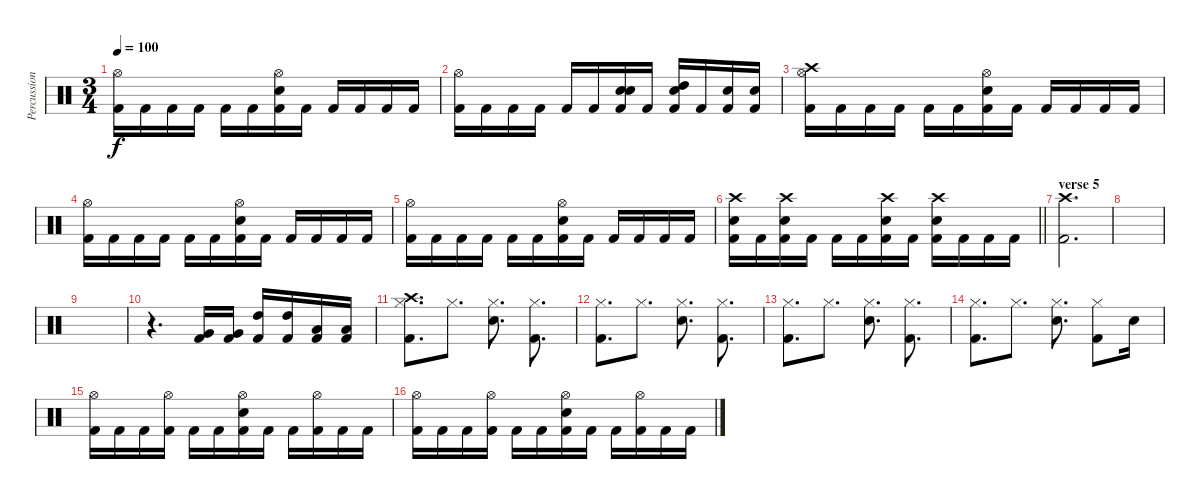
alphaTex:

\track ("Percussions" "Percussion") {instrument percussion}
\staff {score}
\articulation defaults
\ts (3 4)
\tempo 100
\clef neutral
\ks c
("Hi-Hat (open)" "Kick (hit) 2").16{dy f} "Kick (hit) 2".16 "Kick (hit) 2".16 "Kick (hit) 2".16 "Kick (hit) 2".16 "Kick (hit) 2".16 ("Hi-Hat (open)" "Electric Snare (hit)" "Kick (hit) 2").16 "Kick (hit) 2".16 "Kick (hit) 2".16 "Kick (hit) 2".16 "Kick (hit) 2".16 "Kick (hit) 2".16 |
("Hi-Hat (open)" "Kick (hit) 2").16 "Kick (hit) 2".16 "Kick (hit) 2".16 "Kick (hit) 2".16 "Kick (hit) 2".16 "Kick (hit) 2".16 ("Electric Snare (hit)" "Electric Snare (hit)" "Kick (hit) 2").16{bd 60} "Kick (hit) 2".16 ("Electric Snare (hit)" "High Tom (hit)" "Kick (hit) 2").16{bd 60} "Kick (hit) 2".16 ("Electric Snare (hit)" "Kick (hit) 2").16 ("Electric Snare (hit)" "Kick (hit) 2").16 |
("Crash high (hit)" "Hi-Hat (open)" "Kick (hit) 2").16 "Kick (hit) 2".16 "Kick (hit) 2".16 "Kick (hit) 2".16 "Kick (hit) 2".16 "Kick (hit) 2".16 ("Hi-Hat (open)" "Electric Snare (hit)" "Kick (hit) 2").16 "Kick (hit) 2".16 "Kick (hit) 2".16 "Kick (hit) 2".16 "Kick (hit) 2".16 "Kick (hit) 2".16 |
("Hi-Hat (open)" "Kick (hit) 2").16 "Kick (hit) 2".16 "Kick (hit) 2".16 "Kick (hit) 2".16 "Kick (hit) 2".16 "Kick (hit) 2".16 ("Hi-Hat (open)" "Electric Snare (hit)" "Kick (hit) 2").16 "Kick (hit) 2".16 "Kick (hit) 2".16 "Kick (hit) 2".16 "Kick (hit) 2".16 "Kick (hit) 2".16 |
("Hi-Hat (open)" "Kick (hit) 2").16 "Kick (hit) 2".16 "Kick (hit) 2".16 "Kick (hit) 2".16 "Kick (hit) 2".16 "Kick (hit) 2".16 ("Hi-Hat (open)" "Electric Snare (hit)" "Kick (hit) 2").16 "Kick (hit) 2".16 "Kick (hit) 2".16 "Kick (hit) 2".16 "Kick (hit) 2".16 "Kick (hit) 2".16 |
\barLineRight lightlight
("Crash high (hit)" "Electric Snare (hit)" "Kick (hit) 2").16 "Kick (hit) 2".16 ("Crash high (hit)" "Electric Snare (hit)" "Kick (hit) 2").16 "Kick (hit) 2".16 "Kick (hit) 2".16 "Kick (hit) 2".16 ("Crash high (hit)" "Electric Snare (hit)" "Kick (hit) 2").16{bd 60} "Kick (hit) 2".16 ("Crash high (hit)" "Electric Snare (hit)" "Kick (hit) 2").16{bd 60} "Kick (hit) 2".16 "Kick (hit) 2".16 "Kick (hit) 2".16 |
\section ("" "verse 5")
("Crash high (hit)" "Kick (hit) 2").2{d} |
|
|
r.4{d} ("Very Low Tom (hit)" "Kick (hit) 2").16 ("Very Low Tom (hit)" "Kick (hit) 2").16 ("High Tom (hit)" "Kick (hit) 2").16 ("High Tom (hit)" "Kick (hit) 2").16 ("Low Tom (hit)" "Kick (hit) 2").16 ("Low Tom (hit)" "Kick (hit) 2").16 |
("Crash high (hit)" "Hi-Hat (closed)" "Kick (hit) 2").8{d} "Hi-Hat (closed)".8{d} ("Hi-Hat (closed)" "Electric Snare (hit)").8{d} ("Hi-Hat (closed)" "Kick (hit) 2").8{d} |
("Hi-Hat (closed)" "Kick (hit) 2").8{d} "Hi-Hat (closed)".8{d} ("Hi-Hat (closed)" "Electric Snare (hit)").8{d} ("Hi-Hat (closed)" "Kick (hit) 2").8{d} |
("Hi-Hat (closed)" "Kick (hit) 2").8{d} "Hi-Hat (closed)".8{d} ("Hi-Hat (closed)" "Electric Snare (hit)").8{d} ("Hi-Hat (closed)" "Kick (hit) 2").8{d} |
("Hi-Hat (closed)" "Kick (hit) 2").8{d} "Hi-Hat (closed)".8{d} ("Hi-Hat (closed)" "Electric Snare (hit)").8{d} ("Hi-Hat (closed)" "Kick (hit) 2").8 "Electric Snare (hit)".16 |
("Hi-Hat (open)" "Kick (hit) 2").16 "Kick (hit) 2".16 "Kick (hit) 2".16 ("Hi-Hat (open)" "Kick (hit) 2").16 "Kick (hit) 2".16 "Kick (hit) 2".16 ("Hi-Hat (open)" "Electric Snare (hit)" "Kick (hit) 2").16 "Kick (hit) 2".16 "Kick (hit) 2".16 ("Hi-Hat (open)" "Kick (hit) 2").16 "Kick (hit) 2".16 "Kick (hit) 2".16 |
("Hi-Hat (open)" "Kick (hit) 2").16 "Kick (hit) 2".16 "Kick (hit) 2".16 ("Hi-Hat (open)" "Kick (hit) 2").16 "Kick (hit) 2".16 "Kick (hit) 2".16 ("Hi-Hat (open)" "Electric Snare (hit)" "Kick (hit) 2").16 "Kick (hit) 2".16 "Kick (hit) 2".16 ("Hi-Hat (open)" "Kick (hit) 2").16 "Kick (hit) 2".16 "Kick (hit) 2".16
